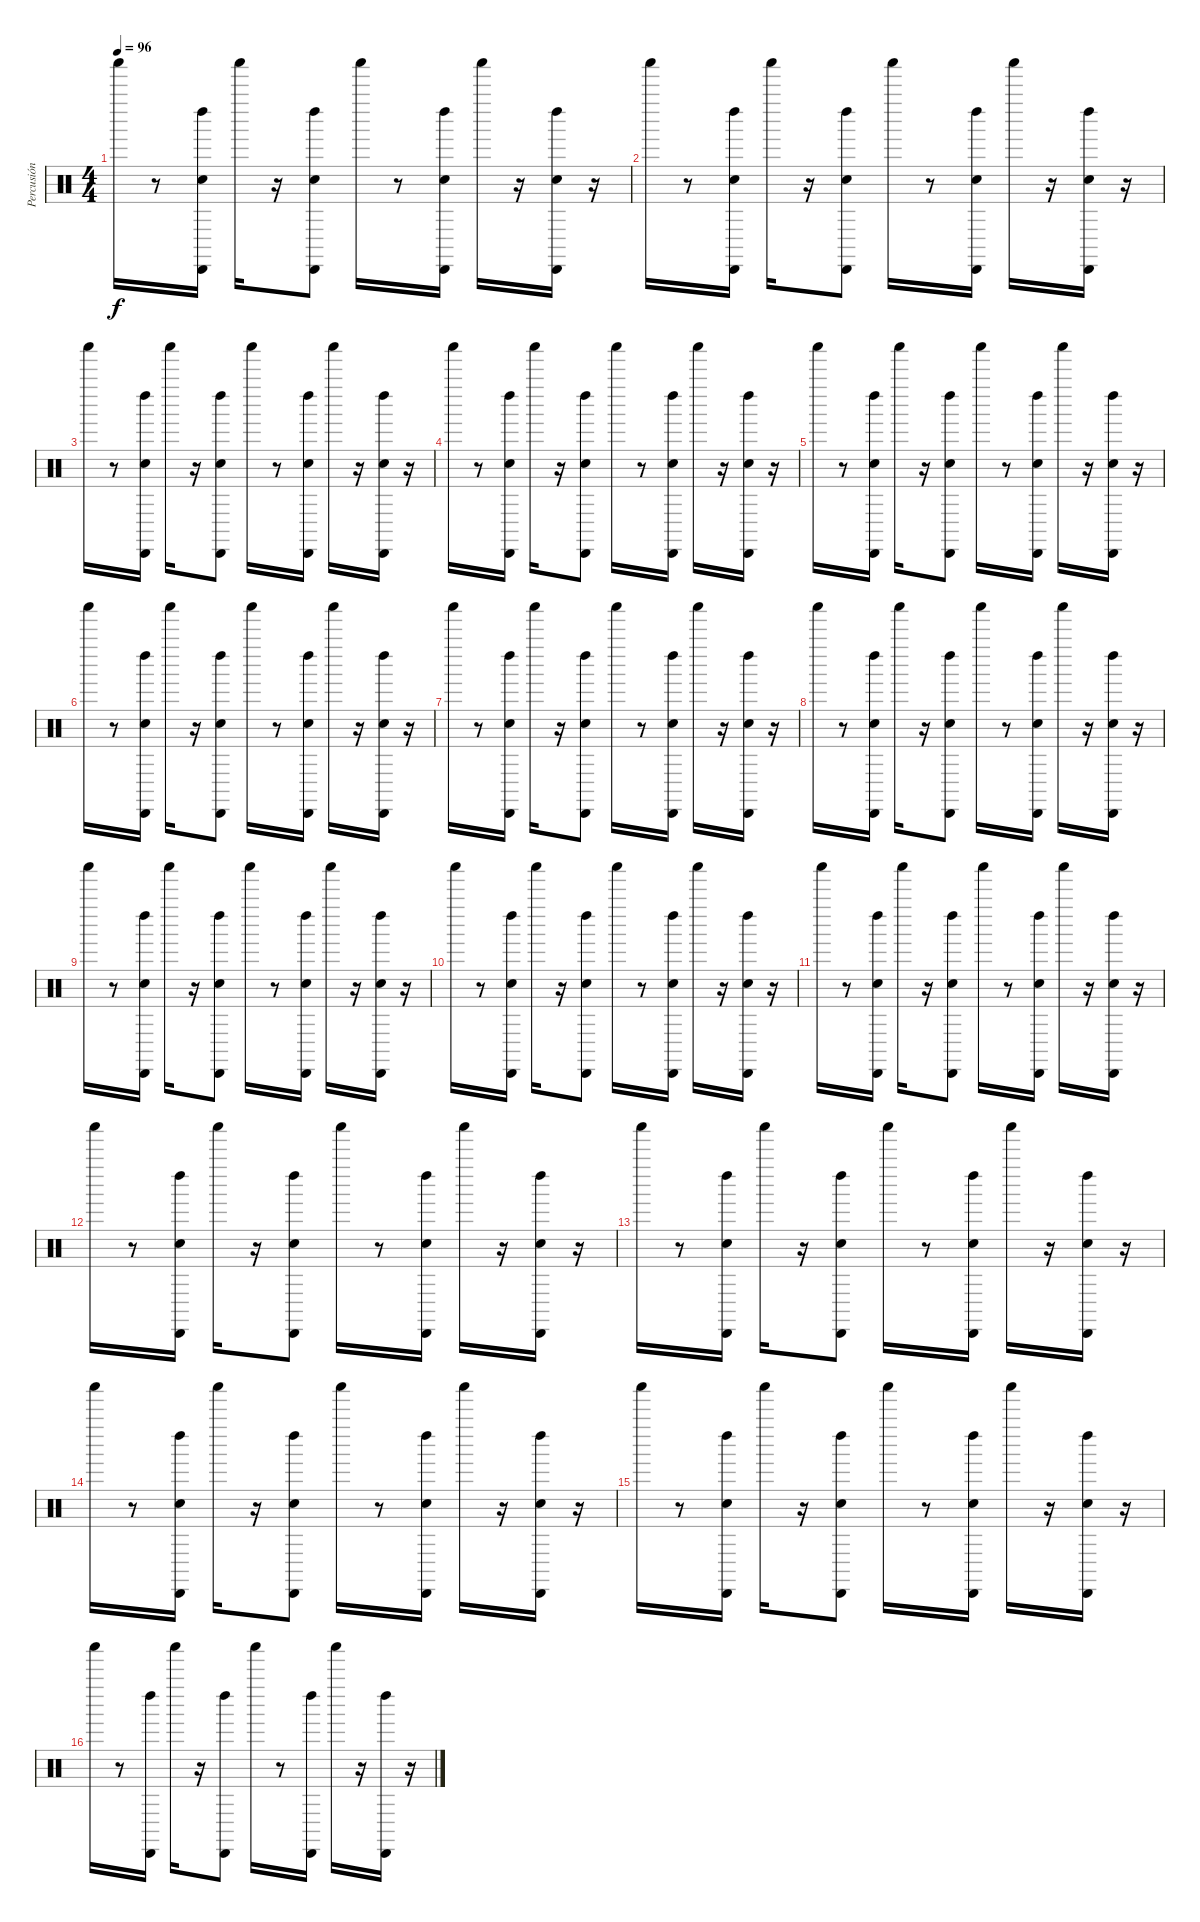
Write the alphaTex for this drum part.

\track ("Percusión" "Percusión") {instrument percussion}
\staff {score}
\articulation defaults
\ts (4 4)
\tempo 96
\clef neutral
\ks c "Shaker (hit)".16{dy f}
r.8 ("Cabasa (hit)" "Left Maraca (hit)" "Hand Clap (hit)").16 "Shaker (hit)".16 r.16 ("Left Maraca (hit)" "Cabasa (hit)" "Hand Clap (hit)").8 "Shaker (hit)".16 r.8 ("Cabasa (hit)" "Left Maraca (hit)" "Hand Clap (hit)").16 "Shaker (hit)".16 r.16 ("Left Maraca (hit)" "Cabasa (hit)" "Hand Clap (hit)").16 r.16 |
"Shaker (hit)".16 r.8 ("Cabasa (hit)" "Left Maraca (hit)" "Hand Clap (hit)").16 "Shaker (hit)".16 r.16 ("Left Maraca (hit)" "Cabasa (hit)" "Hand Clap (hit)").8 "Shaker (hit)".16 r.8 ("Cabasa (hit)" "Left Maraca (hit)" "Hand Clap (hit)").16 "Shaker (hit)".16 r.16 ("Left Maraca (hit)" "Cabasa (hit)" "Hand Clap (hit)").16 r.16 |
"Shaker (hit)".16 r.8 ("Cabasa (hit)" "Left Maraca (hit)" "Hand Clap (hit)").16 "Shaker (hit)".16 r.16 ("Left Maraca (hit)" "Cabasa (hit)" "Hand Clap (hit)").8 "Shaker (hit)".16 r.8 ("Cabasa (hit)" "Left Maraca (hit)" "Hand Clap (hit)").16 "Shaker (hit)".16 r.16 ("Left Maraca (hit)" "Cabasa (hit)" "Hand Clap (hit)").16 r.16 |
"Shaker (hit)".16 r.8 ("Cabasa (hit)" "Left Maraca (hit)" "Hand Clap (hit)").16 "Shaker (hit)".16 r.16 ("Left Maraca (hit)" "Cabasa (hit)" "Hand Clap (hit)").8 "Shaker (hit)".16 r.8 ("Cabasa (hit)" "Left Maraca (hit)" "Hand Clap (hit)").16 "Shaker (hit)".16 r.16 ("Left Maraca (hit)" "Cabasa (hit)" "Hand Clap (hit)").16 r.16 |
"Shaker (hit)".16 r.8 ("Cabasa (hit)" "Left Maraca (hit)" "Hand Clap (hit)").16 "Shaker (hit)".16 r.16 ("Left Maraca (hit)" "Cabasa (hit)" "Hand Clap (hit)").8 "Shaker (hit)".16 r.8 ("Cabasa (hit)" "Left Maraca (hit)" "Hand Clap (hit)").16 "Shaker (hit)".16 r.16 ("Left Maraca (hit)" "Cabasa (hit)" "Hand Clap (hit)").16 r.16 |
"Shaker (hit)".16 r.8 ("Cabasa (hit)" "Left Maraca (hit)" "Hand Clap (hit)").16 "Shaker (hit)".16 r.16 ("Left Maraca (hit)" "Cabasa (hit)" "Hand Clap (hit)").8 "Shaker (hit)".16 r.8 ("Cabasa (hit)" "Left Maraca (hit)" "Hand Clap (hit)").16 "Shaker (hit)".16 r.16 ("Left Maraca (hit)" "Cabasa (hit)" "Hand Clap (hit)").16 r.16 |
"Shaker (hit)".16 r.8 ("Cabasa (hit)" "Left Maraca (hit)" "Hand Clap (hit)").16 "Shaker (hit)".16 r.16 ("Left Maraca (hit)" "Cabasa (hit)" "Hand Clap (hit)").8 "Shaker (hit)".16 r.8 ("Cabasa (hit)" "Left Maraca (hit)" "Hand Clap (hit)").16 "Shaker (hit)".16 r.16 ("Left Maraca (hit)" "Cabasa (hit)" "Hand Clap (hit)").16 r.16 |
"Shaker (hit)".16 r.8 ("Cabasa (hit)" "Left Maraca (hit)" "Hand Clap (hit)").16 "Shaker (hit)".16 r.16 ("Left Maraca (hit)" "Cabasa (hit)" "Hand Clap (hit)").8 "Shaker (hit)".16 r.8 ("Cabasa (hit)" "Left Maraca (hit)" "Hand Clap (hit)").16 "Shaker (hit)".16 r.16 ("Left Maraca (hit)" "Cabasa (hit)" "Hand Clap (hit)").16 r.16 |
"Shaker (hit)".16 r.8 ("Cabasa (hit)" "Left Maraca (hit)" "Hand Clap (hit)").16 "Shaker (hit)".16 r.16 ("Left Maraca (hit)" "Cabasa (hit)" "Hand Clap (hit)").8 "Shaker (hit)".16 r.8 ("Cabasa (hit)" "Left Maraca (hit)" "Hand Clap (hit)").16 "Shaker (hit)".16 r.16 ("Left Maraca (hit)" "Cabasa (hit)" "Hand Clap (hit)").16 r.16 |
"Shaker (hit)".16 r.8 ("Cabasa (hit)" "Left Maraca (hit)" "Hand Clap (hit)").16 "Shaker (hit)".16 r.16 ("Left Maraca (hit)" "Cabasa (hit)" "Hand Clap (hit)").8 "Shaker (hit)".16 r.8 ("Cabasa (hit)" "Left Maraca (hit)" "Hand Clap (hit)").16 "Shaker (hit)".16 r.16 ("Left Maraca (hit)" "Cabasa (hit)" "Hand Clap (hit)").16 r.16 |
"Shaker (hit)".16 r.8 ("Cabasa (hit)" "Left Maraca (hit)" "Hand Clap (hit)").16 "Shaker (hit)".16 r.16 ("Left Maraca (hit)" "Cabasa (hit)" "Hand Clap (hit)").8 "Shaker (hit)".16 r.8 ("Cabasa (hit)" "Left Maraca (hit)" "Hand Clap (hit)").16 "Shaker (hit)".16 r.16 ("Left Maraca (hit)" "Cabasa (hit)" "Hand Clap (hit)").16 r.16 |
"Shaker (hit)".16 r.8 ("Cabasa (hit)" "Left Maraca (hit)" "Hand Clap (hit)").16 "Shaker (hit)".16 r.16 ("Left Maraca (hit)" "Cabasa (hit)" "Hand Clap (hit)").8 "Shaker (hit)".16 r.8 ("Cabasa (hit)" "Left Maraca (hit)" "Hand Clap (hit)").16 "Shaker (hit)".16 r.16 ("Left Maraca (hit)" "Cabasa (hit)" "Hand Clap (hit)").16 r.16 |
"Shaker (hit)".16 r.8 ("Cabasa (hit)" "Left Maraca (hit)" "Hand Clap (hit)").16 "Shaker (hit)".16 r.16 ("Left Maraca (hit)" "Cabasa (hit)" "Hand Clap (hit)").8 "Shaker (hit)".16 r.8 ("Cabasa (hit)" "Left Maraca (hit)" "Hand Clap (hit)").16 "Shaker (hit)".16 r.16 ("Left Maraca (hit)" "Cabasa (hit)" "Hand Clap (hit)").16 r.16 |
"Shaker (hit)".16 r.8 ("Cabasa (hit)" "Left Maraca (hit)" "Hand Clap (hit)").16 "Shaker (hit)".16 r.16 ("Left Maraca (hit)" "Cabasa (hit)" "Hand Clap (hit)").8 "Shaker (hit)".16 r.8 ("Cabasa (hit)" "Left Maraca (hit)" "Hand Clap (hit)").16 "Shaker (hit)".16 r.16 ("Left Maraca (hit)" "Cabasa (hit)" "Hand Clap (hit)").16 r.16 |
"Shaker (hit)".16 r.8 ("Cabasa (hit)" "Left Maraca (hit)" "Hand Clap (hit)").16 "Shaker (hit)".16 r.16 ("Left Maraca (hit)" "Cabasa (hit)" "Hand Clap (hit)").8 "Shaker (hit)".16 r.8 ("Cabasa (hit)" "Left Maraca (hit)" "Hand Clap (hit)").16 "Shaker (hit)".16 r.16 ("Left Maraca (hit)" "Cabasa (hit)" "Hand Clap (hit)").16 r.16 |
"Shaker (hit)".16 r.8 ("Cabasa (hit)" "Left Maraca (hit)").16 "Shaker (hit)".16 r.16 ("Left Maraca (hit)" "Cabasa (hit)").8 "Shaker (hit)".16 r.8 ("Cabasa (hit)" "Left Maraca (hit)").16 "Shaker (hit)".16 r.16 ("Left Maraca (hit)" "Cabasa (hit)").16 r.16
